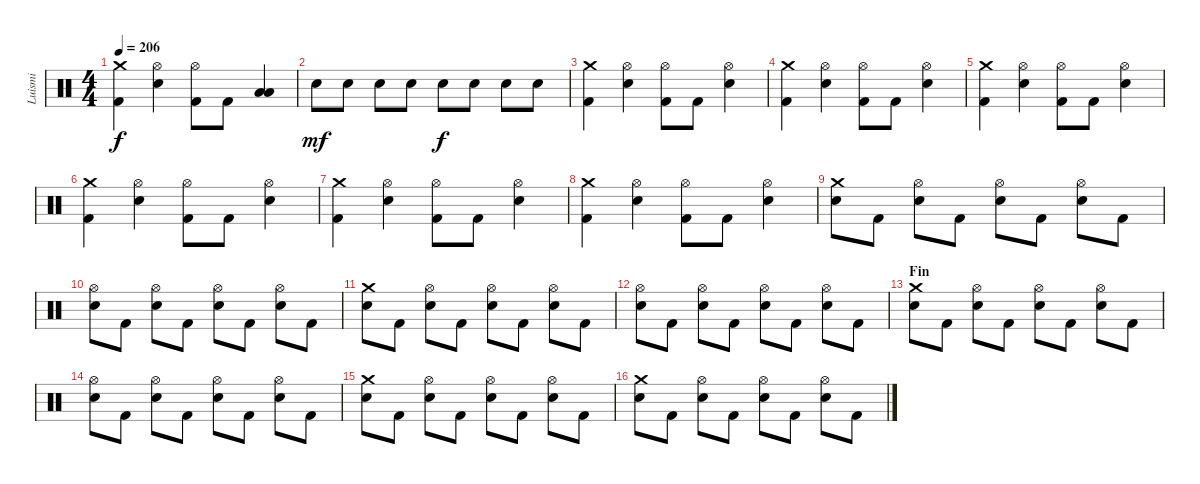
\track ("Luismi" "Luismi") {instrument percussion}
\staff {score}
\articulation defaults
\ts (4 4)
\tempo 206
\clef neutral
\ks c
("Crash medium (hit)" "Kick (hit) 2").4{dy f} ("Hi-Hat (open)" "Snare (hit) 2").4 ("Hi-Hat (open)" "Kick (hit) 2").8 "Kick (hit) 2".8 ("Low Floor Tom (hit)" "Low Floor Tom (hit)").4 |
"Snare (hit) 2".8{dy mf} "Snare (hit) 2".8 "Snare (hit) 2".8 "Snare (hit) 2".8 "Snare (hit) 2".8{dy f} "Snare (hit) 2".8 "Snare (hit) 2".8 "Snare (hit) 2".8 |
("Crash medium (hit)" "Kick (hit) 2").4 ("Hi-Hat (open)" "Snare (hit) 2").4 ("Hi-Hat (open)" "Kick (hit) 2").8 "Kick (hit) 2".8 ("Hi-Hat (open)" "Snare (hit) 2").4 |
("Crash medium (hit)" "Kick (hit) 2").4 ("Hi-Hat (open)" "Snare (hit) 2").4 ("Hi-Hat (open)" "Kick (hit) 2").8 "Kick (hit) 2".8 ("Hi-Hat (open)" "Snare (hit) 2").4 |
("Crash medium (hit)" "Kick (hit) 2").4 ("Hi-Hat (open)" "Snare (hit) 2").4 ("Hi-Hat (open)" "Kick (hit) 2").8 "Kick (hit) 2".8 ("Hi-Hat (open)" "Snare (hit) 2").4 |
("Crash medium (hit)" "Kick (hit) 2").4 ("Hi-Hat (open)" "Snare (hit) 2").4 ("Hi-Hat (open)" "Kick (hit) 2").8 "Kick (hit) 2".8 ("Hi-Hat (open)" "Snare (hit) 2").4 |
("Crash medium (hit)" "Kick (hit) 2").4 ("Hi-Hat (open)" "Snare (hit) 2").4 ("Hi-Hat (open)" "Kick (hit) 2").8 "Kick (hit) 2".8 ("Hi-Hat (open)" "Snare (hit) 2").4 |
("Crash medium (hit)" "Kick (hit) 2").4 ("Hi-Hat (open)" "Snare (hit) 2").4 ("Hi-Hat (open)" "Kick (hit) 2").8 "Kick (hit) 2".8 ("Hi-Hat (open)" "Snare (hit) 2").4 |
("Crash medium (hit)" "Snare (hit) 2").8 "Kick (hit) 2".8 ("Hi-Hat (open)" "Snare (hit) 2").8 "Kick (hit) 2".8 ("Hi-Hat (open)" "Snare (hit) 2").8 "Kick (hit) 2".8 ("Hi-Hat (open)" "Snare (hit) 2").8 "Kick (hit) 2".8 |
("Hi-Hat (open)" "Snare (hit) 2").8 "Kick (hit) 2".8 ("Hi-Hat (open)" "Snare (hit) 2").8 "Kick (hit) 2".8 ("Hi-Hat (open)" "Snare (hit) 2").8 "Kick (hit) 2".8 ("Hi-Hat (open)" "Snare (hit) 2").8 "Kick (hit) 2".8 |
("Crash medium (hit)" "Snare (hit) 2").8 "Kick (hit) 2".8 ("Hi-Hat (open)" "Snare (hit) 2").8 "Kick (hit) 2".8 ("Hi-Hat (open)" "Snare (hit) 2").8 "Kick (hit) 2".8 ("Hi-Hat (open)" "Snare (hit) 2").8 "Kick (hit) 2".8 |
("Hi-Hat (open)" "Snare (hit) 2").8 "Kick (hit) 2".8 ("Hi-Hat (open)" "Snare (hit) 2").8 "Kick (hit) 2".8 ("Hi-Hat (open)" "Snare (hit) 2").8 "Kick (hit) 2".8 ("Hi-Hat (open)" "Snare (hit) 2").8 "Kick (hit) 2".8 |
\section ("" "Fin")
("Crash medium (hit)" "Snare (hit) 2").8 "Kick (hit) 2".8 ("Hi-Hat (open)" "Snare (hit) 2").8 "Kick (hit) 2".8 ("Hi-Hat (open)" "Snare (hit) 2").8 "Kick (hit) 2".8 ("Hi-Hat (open)" "Snare (hit) 2").8 "Kick (hit) 2".8 |
("Hi-Hat (open)" "Snare (hit) 2").8 "Kick (hit) 2".8 ("Hi-Hat (open)" "Snare (hit) 2").8 "Kick (hit) 2".8 ("Hi-Hat (open)" "Snare (hit) 2").8 "Kick (hit) 2".8 ("Hi-Hat (open)" "Snare (hit) 2").8 "Kick (hit) 2".8 |
("Crash medium (hit)" "Snare (hit) 2").8 "Kick (hit) 2".8 ("Hi-Hat (open)" "Snare (hit) 2").8 "Kick (hit) 2".8 ("Hi-Hat (open)" "Snare (hit) 2").8 "Kick (hit) 2".8 ("Hi-Hat (open)" "Snare (hit) 2").8 "Kick (hit) 2".8 |
("Crash medium (hit)" "Snare (hit) 2").8 "Kick (hit) 2".8 ("Hi-Hat (open)" "Snare (hit) 2").8 "Kick (hit) 2".8 ("Hi-Hat (open)" "Snare (hit) 2").8 "Kick (hit) 2".8 ("Hi-Hat (open)" "Snare (hit) 2").8 "Kick (hit) 2".8
